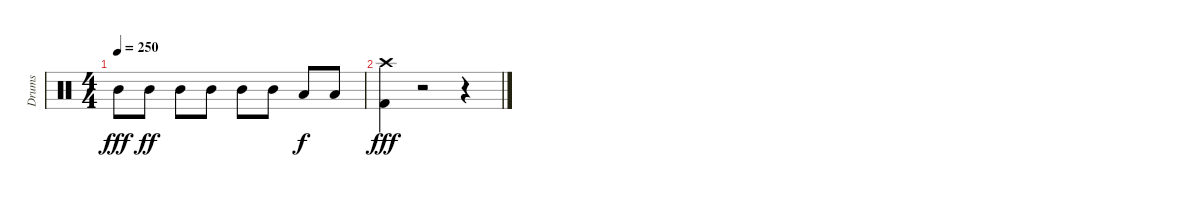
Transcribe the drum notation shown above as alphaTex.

\track ("Drums" "Drums") {instrument percussion}
\staff {score}
\articulation defaults
\ts (4 4)
\tempo 250
\clef neutral
\ks c "Mid Tom (hit)".8{dy fff} "Mid Tom (hit)".8{dy ff} "Mid Tom (hit)".8 "Mid Tom (hit)".8 "Mid Tom (hit)".8 "Mid Tom (hit)".8 "Low Tom (hit)".8{dy f} "Low Tom (hit)".8
|
("Crash high (hit)" "Kick (hit) 2").4{dy fff} r.2 r.4
